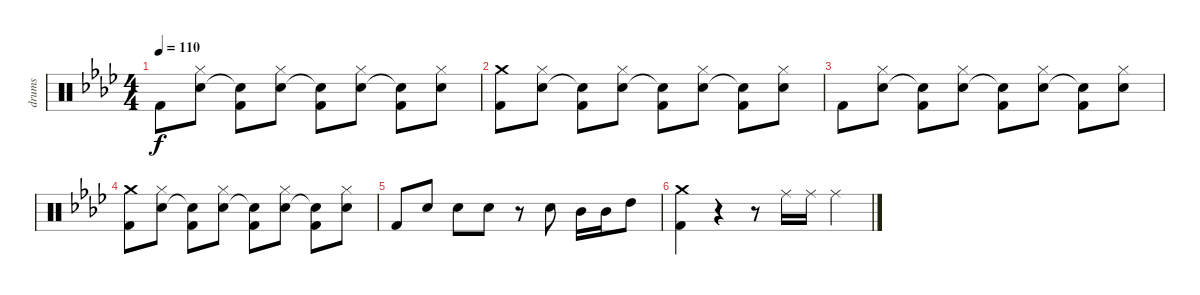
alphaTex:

\track ("drums" "drums") {instrument percussion}
\staff {score}
\articulation defaults
\ts (4 4)
\tempo 110
\clef neutral
\ks ab "Kick (hit) 2".8{dy f}
("Electric Snare (hit)" "Hi-Hat (closed)").8 ("Electric Snare (hit)"{t} "Kick (hit) 2").8 ("Electric Snare (hit)" "Hi-Hat (closed)").8 ("Electric Snare (hit)"{t} "Kick (hit) 2").8 ("Electric Snare (hit)" "Hi-Hat (closed)").8 ("Electric Snare (hit)"{t} "Kick (hit) 2").8 ("Electric Snare (hit)" "Hi-Hat (closed)").8 |
("Kick (hit) 2" "Crash medium (hit)").8 ("Electric Snare (hit)" "Hi-Hat (closed)").8 ("Electric Snare (hit)"{t} "Kick (hit) 2").8 ("Electric Snare (hit)" "Hi-Hat (closed)").8 ("Electric Snare (hit)"{t} "Kick (hit) 2").8 ("Electric Snare (hit)" "Hi-Hat (closed)").8 ("Electric Snare (hit)"{t} "Kick (hit) 2").8 ("Electric Snare (hit)" "Hi-Hat (closed)").8 |
"Kick (hit) 2".8 ("Electric Snare (hit)" "Hi-Hat (closed)").8 ("Electric Snare (hit)"{t} "Kick (hit) 2").8 ("Electric Snare (hit)" "Hi-Hat (closed)").8 ("Electric Snare (hit)"{t} "Kick (hit) 2").8 ("Electric Snare (hit)" "Hi-Hat (closed)").8 ("Electric Snare (hit)"{t} "Kick (hit) 2").8 ("Electric Snare (hit)" "Hi-Hat (closed)").8 |
("Crash medium (hit)" "Kick (hit) 2").8 ("Electric Snare (hit)" "Hi-Hat (closed)").8 ("Electric Snare (hit)"{t} "Kick (hit) 2").8 ("Electric Snare (hit)" "Hi-Hat (closed)").8 ("Electric Snare (hit)"{t} "Kick (hit) 2").8 ("Electric Snare (hit)" "Hi-Hat (closed)").8 ("Electric Snare (hit)"{t} "Kick (hit) 2").8 ("Electric Snare (hit)" "Hi-Hat (closed)").8 |
"Kick (hit) 2".8 "Electric Snare (hit)".8 "Electric Snare (hit)".8 "Electric Snare (hit)".8 r.8 "Electric Snare (hit)".8 "Mid Tom (hit)".16 "Mid Tom (hit)".16 "High Tom (hit)".8 |
("Kick (hit) 2" "Crash medium (hit)").4 r.4 r.8 "Ride (middle)".16 "Ride (middle)".16 "Ride (middle)".4
